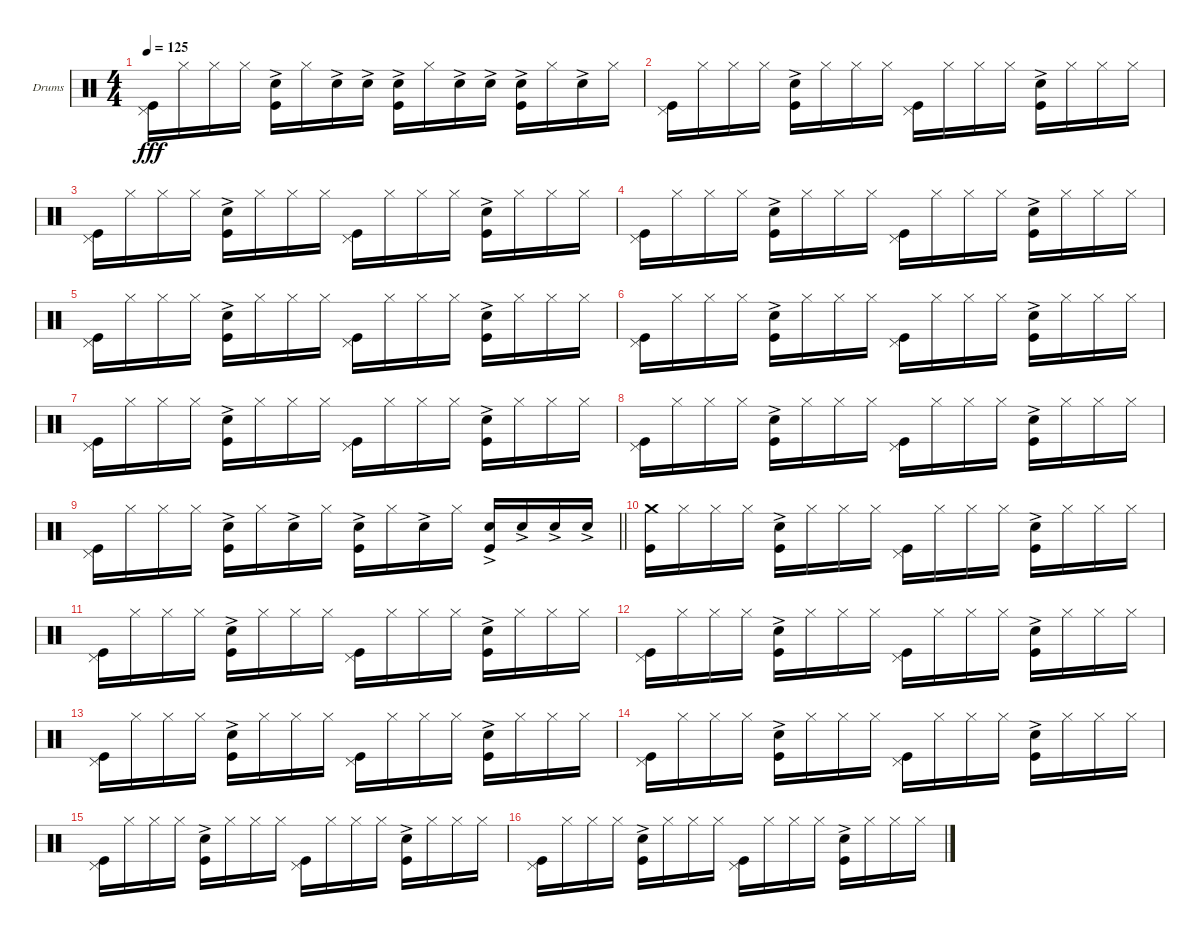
\bracketExtendMode groupsimilarinstruments
\firstSystemTrackNameOrientation horizontal
\otherSystemsTrackNameOrientation horizontal
\track ("Ударники Григорий Гурьянов" "Drums") {instrument percussion}
\staff {score}
\articulation defaults
\ts (4 4)
\tempo 125
\clef neutral
\ks c
("Pedal Hi-Hat (hit)" "Kick (hit)").16{dy fff} "Hi-Hat (closed)".16 "Hi-Hat (closed)".16 "Hi-Hat (closed)".16 ("Snare (hit) 2"{ac} "Kick (hit)").16 "Hi-Hat (closed)".16 "Snare (hit) 2"{ac}.16 "Snare (hit) 2"{ac}.16 ("Snare (hit) 2"{ac} "Kick (hit)").16 "Hi-Hat (closed)".16 "Snare (hit) 2"{ac}.16 "Snare (hit) 2"{ac}.16 ("Snare (hit) 2"{ac} "Kick (hit)").16 "Hi-Hat (closed)".16 "Snare (hit) 2"{ac}.16 "Hi-Hat (closed)".16 |
("Pedal Hi-Hat (hit)" "Kick (hit)").16 "Hi-Hat (closed)".16 "Hi-Hat (closed)".16 "Hi-Hat (closed)".16 ("Snare (hit) 2"{ac} "Kick (hit)").16 "Hi-Hat (closed)".16 "Hi-Hat (closed)".16 "Hi-Hat (closed)".16 ("Pedal Hi-Hat (hit)" "Kick (hit)").16 "Hi-Hat (closed)".16 "Hi-Hat (closed)".16 "Hi-Hat (closed)".16 ("Snare (hit) 2"{ac} "Kick (hit)").16 "Hi-Hat (closed)".16 "Hi-Hat (closed)".16 "Hi-Hat (closed)".16 |
("Pedal Hi-Hat (hit)" "Kick (hit)").16 "Hi-Hat (closed)".16 "Hi-Hat (closed)".16 "Hi-Hat (closed)".16 ("Snare (hit) 2"{ac} "Kick (hit)").16 "Hi-Hat (closed)".16 "Hi-Hat (closed)".16 "Hi-Hat (closed)".16 ("Pedal Hi-Hat (hit)" "Kick (hit)").16 "Hi-Hat (closed)".16 "Hi-Hat (closed)".16 "Hi-Hat (closed)".16 ("Snare (hit) 2"{ac} "Kick (hit)").16 "Hi-Hat (closed)".16 "Hi-Hat (closed)".16 "Hi-Hat (closed)".16 |
("Pedal Hi-Hat (hit)" "Kick (hit)").16 "Hi-Hat (closed)".16 "Hi-Hat (closed)".16 "Hi-Hat (closed)".16 ("Snare (hit) 2"{ac} "Kick (hit)").16 "Hi-Hat (closed)".16 "Hi-Hat (closed)".16 "Hi-Hat (closed)".16 ("Pedal Hi-Hat (hit)" "Kick (hit)").16 "Hi-Hat (closed)".16 "Hi-Hat (closed)".16 "Hi-Hat (closed)".16 ("Snare (hit) 2"{ac} "Kick (hit)").16 "Hi-Hat (closed)".16 "Hi-Hat (closed)".16 "Hi-Hat (closed)".16 |
("Pedal Hi-Hat (hit)" "Kick (hit)").16 "Hi-Hat (closed)".16 "Hi-Hat (closed)".16 "Hi-Hat (closed)".16 ("Snare (hit) 2"{ac} "Kick (hit)").16 "Hi-Hat (closed)".16 "Hi-Hat (closed)".16 "Hi-Hat (closed)".16 ("Pedal Hi-Hat (hit)" "Kick (hit)").16 "Hi-Hat (closed)".16 "Hi-Hat (closed)".16 "Hi-Hat (closed)".16 ("Snare (hit) 2"{ac} "Kick (hit)").16 "Hi-Hat (closed)".16 "Hi-Hat (closed)".16 "Hi-Hat (closed)".16 |
("Pedal Hi-Hat (hit)" "Kick (hit)").16 "Hi-Hat (closed)".16 "Hi-Hat (closed)".16 "Hi-Hat (closed)".16 ("Snare (hit) 2"{ac} "Kick (hit)").16 "Hi-Hat (closed)".16 "Hi-Hat (closed)".16 "Hi-Hat (closed)".16 ("Pedal Hi-Hat (hit)" "Kick (hit)").16 "Hi-Hat (closed)".16 "Hi-Hat (closed)".16 "Hi-Hat (closed)".16 ("Snare (hit) 2"{ac} "Kick (hit)").16 "Hi-Hat (closed)".16 "Hi-Hat (closed)".16 "Hi-Hat (closed)".16 |
("Pedal Hi-Hat (hit)" "Kick (hit)").16 "Hi-Hat (closed)".16 "Hi-Hat (closed)".16 "Hi-Hat (closed)".16 ("Snare (hit) 2"{ac} "Kick (hit)").16 "Hi-Hat (closed)".16 "Hi-Hat (closed)".16 "Hi-Hat (closed)".16 ("Pedal Hi-Hat (hit)" "Kick (hit)").16 "Hi-Hat (closed)".16 "Hi-Hat (closed)".16 "Hi-Hat (closed)".16 ("Snare (hit) 2"{ac} "Kick (hit)").16 "Hi-Hat (closed)".16 "Hi-Hat (closed)".16 "Hi-Hat (closed)".16 |
("Pedal Hi-Hat (hit)" "Kick (hit)").16 "Hi-Hat (closed)".16 "Hi-Hat (closed)".16 "Hi-Hat (closed)".16 ("Snare (hit) 2"{ac} "Kick (hit)").16 "Hi-Hat (closed)".16 "Hi-Hat (closed)".16 "Hi-Hat (closed)".16 ("Pedal Hi-Hat (hit)" "Kick (hit)").16 "Hi-Hat (closed)".16 "Hi-Hat (closed)".16 "Hi-Hat (closed)".16 ("Snare (hit) 2"{ac} "Kick (hit)").16 "Hi-Hat (closed)".16 "Hi-Hat (closed)".16 "Hi-Hat (closed)".16 |
\barLineRight lightlight
("Pedal Hi-Hat (hit)" "Kick (hit)").16 "Hi-Hat (closed)".16 "Hi-Hat (closed)".16 "Hi-Hat (closed)".16 ("Snare (hit) 2"{ac} "Kick (hit)").16 "Hi-Hat (closed)".16 "Snare (hit) 2"{ac}.16 "Hi-Hat (closed)".16 ("Snare (hit) 2"{ac} "Kick (hit)").16 "Hi-Hat (closed)".16 "Snare (hit) 2"{ac}.16 "Hi-Hat (closed)".16 ("Snare (hit) 2"{ac} "Kick (hit)").16 "Snare (hit) 2"{ac}.16 "Snare (hit) 2"{ac}.16 "Snare (hit) 2"{ac}.16 |
("Crash medium (hit)" "Kick (hit)").16 "Hi-Hat (closed)".16 "Hi-Hat (closed)".16 "Hi-Hat (closed)".16 ("Snare (hit) 2"{ac} "Kick (hit)").16 "Hi-Hat (closed)".16 "Hi-Hat (closed)".16 "Hi-Hat (closed)".16 ("Pedal Hi-Hat (hit)" "Kick (hit)").16 "Hi-Hat (closed)".16 "Hi-Hat (closed)".16 "Hi-Hat (closed)".16 ("Snare (hit) 2"{ac} "Kick (hit)").16 "Hi-Hat (closed)".16 "Hi-Hat (closed)".16 "Hi-Hat (closed)".16 |
("Pedal Hi-Hat (hit)" "Kick (hit)").16 "Hi-Hat (closed)".16 "Hi-Hat (closed)".16 "Hi-Hat (closed)".16 ("Snare (hit) 2"{ac} "Kick (hit)").16 "Hi-Hat (closed)".16 "Hi-Hat (closed)".16 "Hi-Hat (closed)".16 ("Pedal Hi-Hat (hit)" "Kick (hit)").16 "Hi-Hat (closed)".16 "Hi-Hat (closed)".16 "Hi-Hat (closed)".16 ("Snare (hit) 2"{ac} "Kick (hit)").16 "Hi-Hat (closed)".16 "Hi-Hat (closed)".16 "Hi-Hat (closed)".16 |
("Pedal Hi-Hat (hit)" "Kick (hit)").16 "Hi-Hat (closed)".16 "Hi-Hat (closed)".16 "Hi-Hat (closed)".16 ("Snare (hit) 2"{ac} "Kick (hit)").16 "Hi-Hat (closed)".16 "Hi-Hat (closed)".16 "Hi-Hat (closed)".16 ("Pedal Hi-Hat (hit)" "Kick (hit)").16 "Hi-Hat (closed)".16 "Hi-Hat (closed)".16 "Hi-Hat (closed)".16 ("Snare (hit) 2"{ac} "Kick (hit)").16 "Hi-Hat (closed)".16 "Hi-Hat (closed)".16 "Hi-Hat (closed)".16 |
("Pedal Hi-Hat (hit)" "Kick (hit)").16 "Hi-Hat (closed)".16 "Hi-Hat (closed)".16 "Hi-Hat (closed)".16 ("Snare (hit) 2"{ac} "Kick (hit)").16 "Hi-Hat (closed)".16 "Hi-Hat (closed)".16 "Hi-Hat (closed)".16 ("Pedal Hi-Hat (hit)" "Kick (hit)").16 "Hi-Hat (closed)".16 "Hi-Hat (closed)".16 "Hi-Hat (closed)".16 ("Snare (hit) 2"{ac} "Kick (hit)").16 "Hi-Hat (closed)".16 "Hi-Hat (closed)".16 "Hi-Hat (closed)".16 |
("Pedal Hi-Hat (hit)" "Kick (hit)").16 "Hi-Hat (closed)".16 "Hi-Hat (closed)".16 "Hi-Hat (closed)".16 ("Snare (hit) 2"{ac} "Kick (hit)").16 "Hi-Hat (closed)".16 "Hi-Hat (closed)".16 "Hi-Hat (closed)".16 ("Pedal Hi-Hat (hit)" "Kick (hit)").16 "Hi-Hat (closed)".16 "Hi-Hat (closed)".16 "Hi-Hat (closed)".16 ("Snare (hit) 2"{ac} "Kick (hit)").16 "Hi-Hat (closed)".16 "Hi-Hat (closed)".16 "Hi-Hat (closed)".16 |
("Pedal Hi-Hat (hit)" "Kick (hit)").16 "Hi-Hat (closed)".16 "Hi-Hat (closed)".16 "Hi-Hat (closed)".16 ("Snare (hit) 2"{ac} "Kick (hit)").16 "Hi-Hat (closed)".16 "Hi-Hat (closed)".16 "Hi-Hat (closed)".16 ("Pedal Hi-Hat (hit)" "Kick (hit)").16 "Hi-Hat (closed)".16 "Hi-Hat (closed)".16 "Hi-Hat (closed)".16 ("Snare (hit) 2"{ac} "Kick (hit)").16 "Hi-Hat (closed)".16 "Hi-Hat (closed)".16 "Hi-Hat (closed)".16 |
("Pedal Hi-Hat (hit)" "Kick (hit)").16 "Hi-Hat (closed)".16 "Hi-Hat (closed)".16 "Hi-Hat (closed)".16 ("Snare (hit) 2"{ac} "Kick (hit)").16 "Hi-Hat (closed)".16 "Hi-Hat (closed)".16 "Hi-Hat (closed)".16 ("Pedal Hi-Hat (hit)" "Kick (hit)").16 "Hi-Hat (closed)".16 "Hi-Hat (closed)".16 "Hi-Hat (closed)".16 ("Snare (hit) 2"{ac} "Kick (hit)").16 "Hi-Hat (closed)".16 "Hi-Hat (closed)".16 "Hi-Hat (closed)".16
